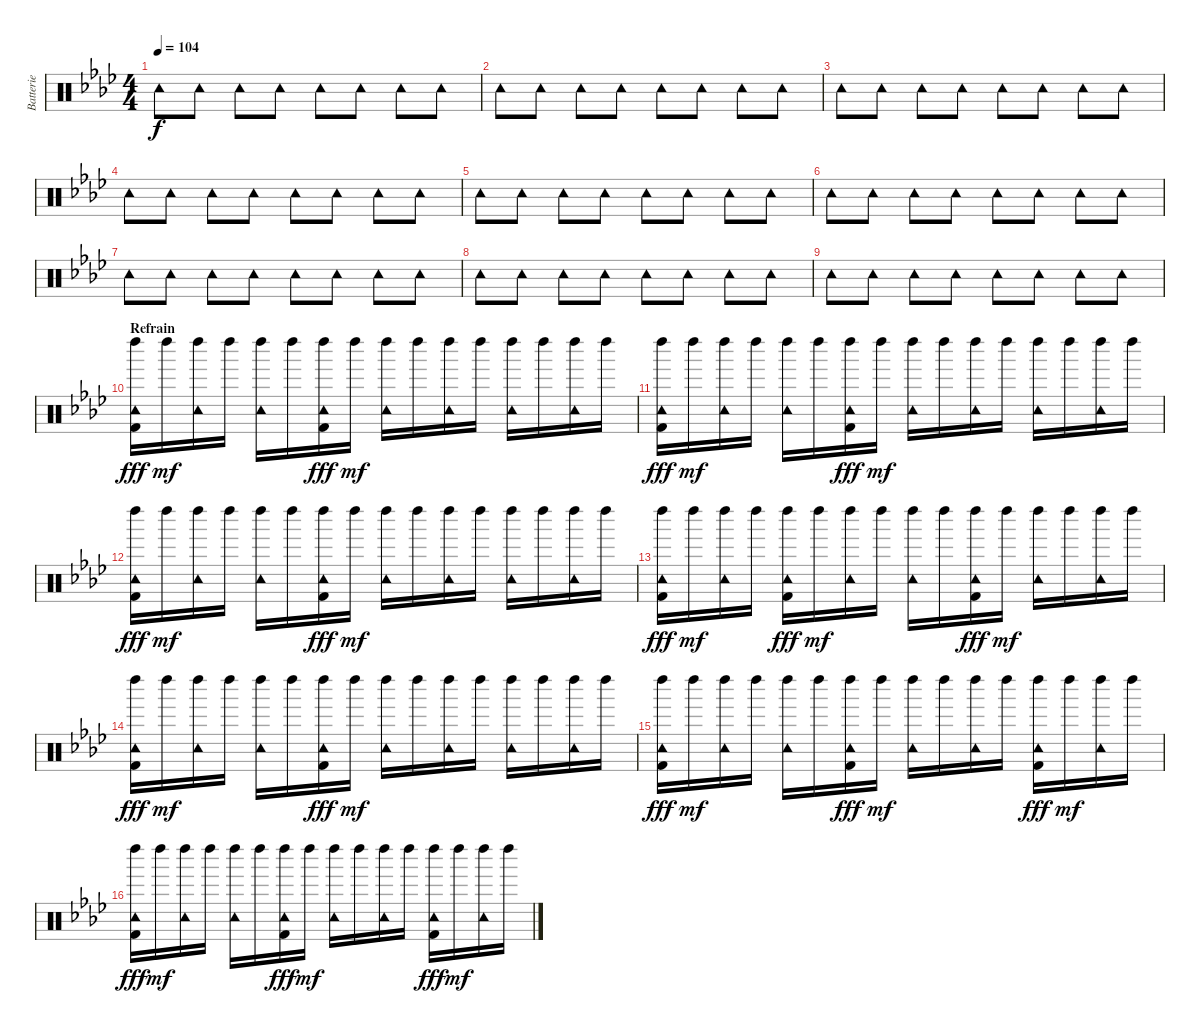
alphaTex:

\track ("Batterie" "Batterie") {instrument percussion}
\staff {score}
\articulation defaults
\ts (4 4)
\tempo 104
\clef neutral
\ks ab "Tambourine (hit)".8{dy f} "Tambourine (hit)".8 "Tambourine (hit)".8 "Tambourine (hit)".8 "Tambourine (hit)".8 "Tambourine (hit)".8 "Tambourine (hit)".8 "Tambourine (hit)".8
|
"Tambourine (hit)".8 "Tambourine (hit)".8 "Tambourine (hit)".8 "Tambourine (hit)".8 "Tambourine (hit)".8 "Tambourine (hit)".8 "Tambourine (hit)".8 "Tambourine (hit)".8 |
"Tambourine (hit)".8 "Tambourine (hit)".8 "Tambourine (hit)".8 "Tambourine (hit)".8 "Tambourine (hit)".8 "Tambourine (hit)".8 "Tambourine (hit)".8 "Tambourine (hit)".8 |
"Tambourine (hit)".8 "Tambourine (hit)".8 "Tambourine (hit)".8 "Tambourine (hit)".8 "Tambourine (hit)".8 "Tambourine (hit)".8 "Tambourine (hit)".8 "Tambourine (hit)".8 |
"Tambourine (hit)".8 "Tambourine (hit)".8 "Tambourine (hit)".8 "Tambourine (hit)".8 "Tambourine (hit)".8 "Tambourine (hit)".8 "Tambourine (hit)".8 "Tambourine (hit)".8 |
"Tambourine (hit)".8 "Tambourine (hit)".8 "Tambourine (hit)".8 "Tambourine (hit)".8 "Tambourine (hit)".8 "Tambourine (hit)".8 "Tambourine (hit)".8 "Tambourine (hit)".8 |
"Tambourine (hit)".8 "Tambourine (hit)".8 "Tambourine (hit)".8 "Tambourine (hit)".8 "Tambourine (hit)".8 "Tambourine (hit)".8 "Tambourine (hit)".8 "Tambourine (hit)".8 |
"Tambourine (hit)".8 "Tambourine (hit)".8 "Tambourine (hit)".8 "Tambourine (hit)".8 "Tambourine (hit)".8 "Tambourine (hit)".8 "Tambourine (hit)".8 "Tambourine (hit)".8 |
"Tambourine (hit)".8 "Tambourine (hit)".8 "Tambourine (hit)".8 "Tambourine (hit)".8 "Tambourine (hit)".8 "Tambourine (hit)".8 "Tambourine (hit)".8 "Tambourine (hit)".8 |
\section ("" "Refrain")
("Left Maraca (hit)" "Tambourine (hit)" "Kick (hit) 2").16{dy fff volume 13} "Left Maraca (hit)".16{dy mf} ("Left Maraca (hit)" "Tambourine (hit)").16 "Left Maraca (hit)".16 ("Left Maraca (hit)" "Tambourine (hit)").16 "Left Maraca (hit)".16 ("Left Maraca (hit)" "Tambourine (hit)" "Kick (hit) 2").16{dy fff} "Left Maraca (hit)".16{dy mf} ("Left Maraca (hit)" "Tambourine (hit)").16 "Left Maraca (hit)".16 ("Left Maraca (hit)" "Tambourine (hit)").16 "Left Maraca (hit)".16 ("Left Maraca (hit)" "Tambourine (hit)").16 "Left Maraca (hit)".16 ("Left Maraca (hit)" "Tambourine (hit)").16 "Left Maraca (hit)".16 |
("Left Maraca (hit)" "Tambourine (hit)" "Kick (hit) 2").16{dy fff} "Left Maraca (hit)".16{dy mf} ("Left Maraca (hit)" "Tambourine (hit)").16 "Left Maraca (hit)".16 ("Left Maraca (hit)" "Tambourine (hit)").16 "Left Maraca (hit)".16 ("Left Maraca (hit)" "Tambourine (hit)" "Kick (hit) 2").16{dy fff} "Left Maraca (hit)".16{dy mf} ("Left Maraca (hit)" "Tambourine (hit)").16 "Left Maraca (hit)".16 ("Left Maraca (hit)" "Tambourine (hit)").16 "Left Maraca (hit)".16 ("Left Maraca (hit)" "Tambourine (hit)").16 "Left Maraca (hit)".16 ("Left Maraca (hit)" "Tambourine (hit)").16 "Left Maraca (hit)".16 |
("Left Maraca (hit)" "Tambourine (hit)" "Kick (hit) 2").16{dy fff} "Left Maraca (hit)".16{dy mf} ("Left Maraca (hit)" "Tambourine (hit)").16 "Left Maraca (hit)".16 ("Left Maraca (hit)" "Tambourine (hit)").16 "Left Maraca (hit)".16 ("Left Maraca (hit)" "Tambourine (hit)" "Kick (hit) 2").16{dy fff} "Left Maraca (hit)".16{dy mf} ("Left Maraca (hit)" "Tambourine (hit)").16 "Left Maraca (hit)".16 ("Left Maraca (hit)" "Tambourine (hit)").16 "Left Maraca (hit)".16 ("Left Maraca (hit)" "Tambourine (hit)").16 "Left Maraca (hit)".16 ("Left Maraca (hit)" "Tambourine (hit)").16 "Left Maraca (hit)".16 |
("Left Maraca (hit)" "Tambourine (hit)" "Kick (hit) 2").16{dy fff} "Left Maraca (hit)".16{dy mf} ("Left Maraca (hit)" "Tambourine (hit)").16 "Left Maraca (hit)".16 ("Left Maraca (hit)" "Tambourine (hit)" "Kick (hit) 2").16{dy fff} "Left Maraca (hit)".16{dy mf} ("Left Maraca (hit)" "Tambourine (hit)").16 "Left Maraca (hit)".16 ("Left Maraca (hit)" "Tambourine (hit)").16 "Left Maraca (hit)".16 ("Left Maraca (hit)" "Tambourine (hit)" "Kick (hit) 2").16{dy fff} "Left Maraca (hit)".16{dy mf} ("Left Maraca (hit)" "Tambourine (hit)").16 "Left Maraca (hit)".16 ("Left Maraca (hit)" "Tambourine (hit)").16 "Left Maraca (hit)".16 |
("Left Maraca (hit)" "Tambourine (hit)" "Kick (hit) 2").16{dy fff} "Left Maraca (hit)".16{dy mf} ("Left Maraca (hit)" "Tambourine (hit)").16 "Left Maraca (hit)".16 ("Left Maraca (hit)" "Tambourine (hit)").16 "Left Maraca (hit)".16 ("Left Maraca (hit)" "Tambourine (hit)" "Kick (hit) 2").16{dy fff} "Left Maraca (hit)".16{dy mf} ("Left Maraca (hit)" "Tambourine (hit)").16 "Left Maraca (hit)".16 ("Left Maraca (hit)" "Tambourine (hit)").16 "Left Maraca (hit)".16 ("Left Maraca (hit)" "Tambourine (hit)").16 "Left Maraca (hit)".16 ("Left Maraca (hit)" "Tambourine (hit)").16 "Left Maraca (hit)".16 |
("Left Maraca (hit)" "Tambourine (hit)" "Kick (hit) 2").16{dy fff} "Left Maraca (hit)".16{dy mf} ("Left Maraca (hit)" "Tambourine (hit)").16 "Left Maraca (hit)".16 ("Left Maraca (hit)" "Tambourine (hit)").16 "Left Maraca (hit)".16 ("Left Maraca (hit)" "Tambourine (hit)" "Kick (hit) 2").16{dy fff} "Left Maraca (hit)".16{dy mf} ("Left Maraca (hit)" "Tambourine (hit)").16 "Left Maraca (hit)".16 ("Left Maraca (hit)" "Tambourine (hit)").16 "Left Maraca (hit)".16 ("Left Maraca (hit)" "Tambourine (hit)" "Kick (hit) 2").16{dy fff} "Left Maraca (hit)".16{dy mf} ("Left Maraca (hit)" "Tambourine (hit)").16 "Left Maraca (hit)".16 |
("Left Maraca (hit)" "Tambourine (hit)" "Kick (hit) 2").16{dy fff} "Left Maraca (hit)".16{dy mf} ("Left Maraca (hit)" "Tambourine (hit)").16 "Left Maraca (hit)".16 ("Left Maraca (hit)" "Tambourine (hit)").16 "Left Maraca (hit)".16 ("Left Maraca (hit)" "Tambourine (hit)" "Kick (hit) 2").16{dy fff} "Left Maraca (hit)".16{dy mf} ("Left Maraca (hit)" "Tambourine (hit)").16 "Left Maraca (hit)".16 ("Left Maraca (hit)" "Tambourine (hit)").16 "Left Maraca (hit)".16 ("Left Maraca (hit)" "Tambourine (hit)" "Kick (hit) 2").16{dy fff} "Left Maraca (hit)".16{dy mf} ("Left Maraca (hit)" "Tambourine (hit)").16 "Left Maraca (hit)".16
